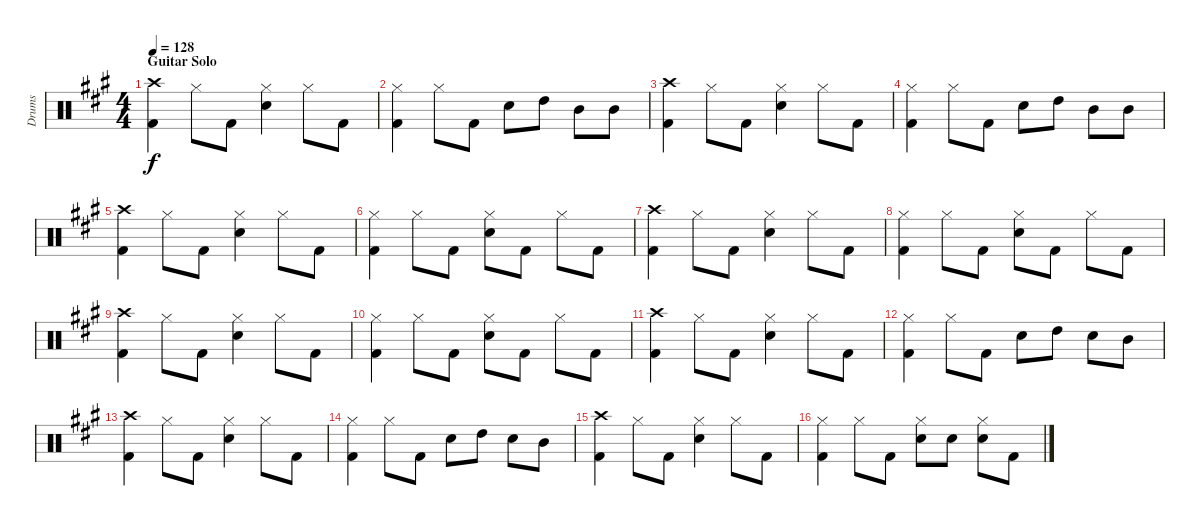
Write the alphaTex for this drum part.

\track ("Drums" "Drums") {instrument percussion}
\staff {score}
\articulation defaults
\ts (4 4)
\section ("" "Guitar Solo")
\tempo 128
\clef neutral
\ks f#minor
("Crash high (hit)" "Kick (hit) 2").4{dy f} "Hi-Hat (closed)".8 "Kick (hit) 2".8 ("Hi-Hat (closed)" "Electric Snare (hit)").4 "Hi-Hat (closed)".8 "Kick (hit) 2".8 |
("Hi-Hat (closed)" "Kick (hit) 2").4 "Hi-Hat (closed)".8 "Kick (hit) 2".8 "Electric Snare (hit)".8 "High Tom (hit)".8 "Mid Tom (hit)".8 "Mid Tom (hit)".8 |
("Crash high (hit)" "Kick (hit) 2").4 "Hi-Hat (closed)".8 "Kick (hit) 2".8 ("Hi-Hat (closed)" "Electric Snare (hit)").4 "Hi-Hat (closed)".8 "Kick (hit) 2".8 |
("Hi-Hat (closed)" "Kick (hit) 2").4 "Hi-Hat (closed)".8 "Kick (hit) 2".8 "Electric Snare (hit)".8 "High Tom (hit)".8 "Mid Tom (hit)".8 "Mid Tom (hit)".8 |
("Crash high (hit)" "Kick (hit) 2").4 "Hi-Hat (closed)".8 "Kick (hit) 2".8 ("Hi-Hat (closed)" "Electric Snare (hit)").4 "Hi-Hat (closed)".8 "Kick (hit) 2".8 |
("Hi-Hat (closed)" "Kick (hit) 2").4 "Hi-Hat (closed)".8 "Kick (hit) 2".8 ("Hi-Hat (closed)" "Electric Snare (hit)").8 "Kick (hit) 2".8 "Hi-Hat (closed)".8 "Kick (hit) 2".8 |
("Crash high (hit)" "Kick (hit) 2").4 "Hi-Hat (closed)".8 "Kick (hit) 2".8 ("Hi-Hat (closed)" "Electric Snare (hit)").4 "Hi-Hat (closed)".8 "Kick (hit) 2".8 |
("Hi-Hat (closed)" "Kick (hit) 2").4 "Hi-Hat (closed)".8 "Kick (hit) 2".8 ("Hi-Hat (closed)" "Electric Snare (hit)").8 "Kick (hit) 2".8 "Hi-Hat (closed)".8 "Kick (hit) 2".8 |
("Crash high (hit)" "Kick (hit) 2").4 "Hi-Hat (closed)".8 "Kick (hit) 2".8 ("Hi-Hat (closed)" "Electric Snare (hit)").4 "Hi-Hat (closed)".8 "Kick (hit) 2".8 |
("Hi-Hat (closed)" "Kick (hit) 2").4 "Hi-Hat (closed)".8 "Kick (hit) 2".8 ("Hi-Hat (closed)" "Electric Snare (hit)").8 "Kick (hit) 2".8 "Hi-Hat (closed)".8 "Kick (hit) 2".8 |
("Crash high (hit)" "Kick (hit) 2").4 "Hi-Hat (closed)".8 "Kick (hit) 2".8 ("Hi-Hat (closed)" "Electric Snare (hit)").4 "Hi-Hat (closed)".8 "Kick (hit) 2".8 |
("Hi-Hat (closed)" "Kick (hit) 2").4 "Hi-Hat (closed)".8 "Kick (hit) 2".8 "Electric Snare (hit)".8 "High Tom (hit)".8 "Electric Snare (hit)".8 "Mid Tom (hit)".8 |
("Crash high (hit)" "Kick (hit) 2").4 "Hi-Hat (closed)".8 "Kick (hit) 2".8 ("Hi-Hat (closed)" "Electric Snare (hit)").4 "Hi-Hat (closed)".8 "Kick (hit) 2".8 |
("Hi-Hat (closed)" "Kick (hit) 2").4 "Hi-Hat (closed)".8 "Kick (hit) 2".8 "Electric Snare (hit)".8 "High Tom (hit)".8 "Electric Snare (hit)".8 "Mid Tom (hit)".8 |
("Crash high (hit)" "Kick (hit) 2").4 "Hi-Hat (closed)".8 "Kick (hit) 2".8 ("Hi-Hat (closed)" "Electric Snare (hit)").4 "Hi-Hat (closed)".8 "Kick (hit) 2".8 |
("Hi-Hat (closed)" "Kick (hit) 2").4 "Hi-Hat (closed)".8 "Kick (hit) 2".8 ("Hi-Hat (closed)" "Electric Snare (hit)").8 "Electric Snare (hit)".8 ("Hi-Hat (closed)" "Electric Snare (hit)").8 "Kick (hit) 2".8
